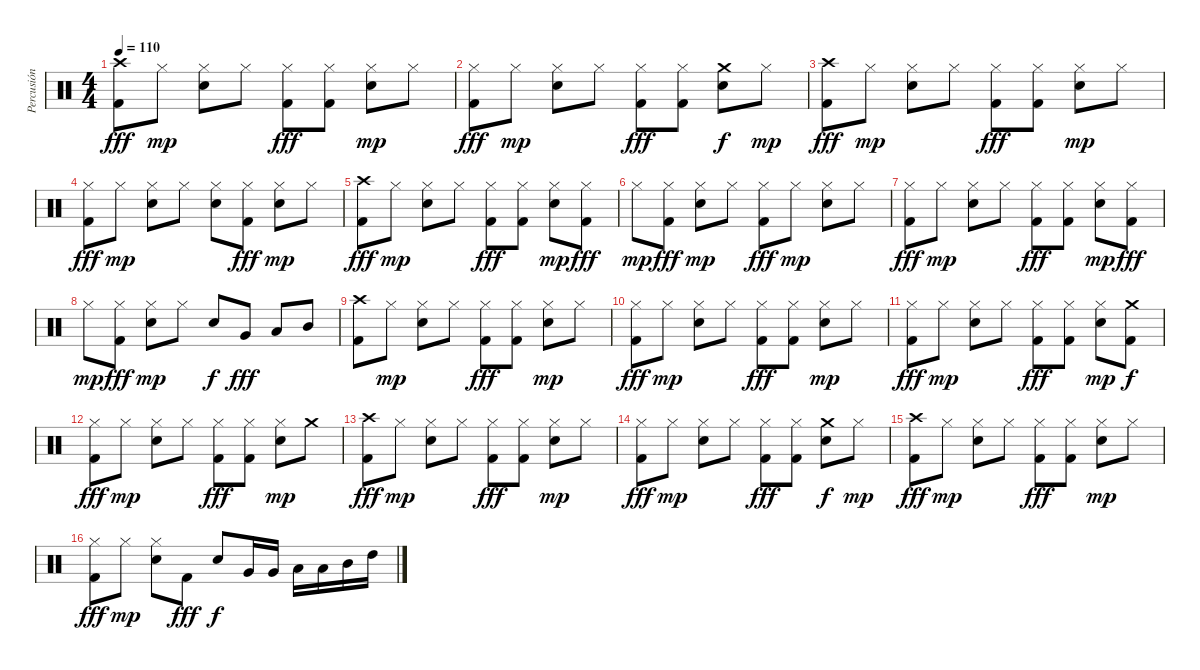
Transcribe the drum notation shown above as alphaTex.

\track ("Percusión" "Percusión") {instrument percussion}
\staff {score}
\articulation defaults
\ts (4 4)
\tempo 110
\clef neutral
\ks c
("Crash high (hit)" "Kick (hit) 2").8{dy fff} "Hi-Hat (closed)".8{dy mp} ("Hi-Hat (closed)" "Snare (hit) 2").8 "Hi-Hat (closed)".8 ("Hi-Hat (closed)" "Kick (hit) 2").8{dy fff} ("Hi-Hat (closed)" "Kick (hit) 2").8 ("Hi-Hat (closed)" "Snare (hit) 2").8{dy mp} "Hi-Hat (closed)".8 |
("Hi-Hat (closed)" "Kick (hit) 2").8{dy fff} "Hi-Hat (closed)".8{dy mp} ("Hi-Hat (closed)" "Snare (hit) 2").8 "Hi-Hat (closed)".8 ("Hi-Hat (closed)" "Kick (hit) 2").8{dy fff} ("Hi-Hat (closed)" "Kick (hit) 2").8 ("Crash medium (hit)" "Snare (hit) 2").8{dy f} "Hi-Hat (closed)".8{dy mp} |
("Crash high (hit)" "Kick (hit) 2").8{dy fff} "Hi-Hat (closed)".8{dy mp} ("Hi-Hat (closed)" "Snare (hit) 2").8 "Hi-Hat (closed)".8 ("Hi-Hat (closed)" "Kick (hit) 2").8{dy fff} ("Hi-Hat (closed)" "Kick (hit) 2").8 ("Hi-Hat (closed)" "Snare (hit) 2").8{dy mp} "Hi-Hat (closed)".8 |
("Hi-Hat (closed)" "Kick (hit) 2").8{dy fff} "Hi-Hat (closed)".8{dy mp} ("Hi-Hat (closed)" "Snare (hit) 2").8 "Hi-Hat (closed)".8 ("Hi-Hat (closed)" "Snare (hit) 2").8 ("Hi-Hat (closed)" "Kick (hit) 2").8{dy fff} ("Hi-Hat (closed)" "Snare (hit) 2").8{dy mp} "Hi-Hat (closed)".8 |
("Crash high (hit)" "Kick (hit) 2").8{dy fff} "Hi-Hat (closed)".8{dy mp} ("Hi-Hat (closed)" "Snare (hit) 2").8 "Hi-Hat (closed)".8 ("Hi-Hat (closed)" "Kick (hit) 2").8{dy fff} ("Hi-Hat (closed)" "Kick (hit) 2").8 ("Hi-Hat (closed)" "Snare (hit) 2").8{dy mp} ("Hi-Hat (closed)" "Kick (hit) 2").8{dy fff} |
"Hi-Hat (closed)".8{dy mp} ("Hi-Hat (closed)" "Kick (hit) 2").8{dy fff} ("Hi-Hat (closed)" "Snare (hit) 2").8{dy mp} "Hi-Hat (closed)".8 ("Hi-Hat (closed)" "Kick (hit) 2").8{dy fff} "Hi-Hat (closed)".8{dy mp} ("Hi-Hat (closed)" "Snare (hit) 2").8 "Hi-Hat (closed)".8 |
("Hi-Hat (closed)" "Kick (hit) 2").8{dy fff} "Hi-Hat (closed)".8{dy mp} ("Hi-Hat (closed)" "Snare (hit) 2").8 "Hi-Hat (closed)".8 ("Hi-Hat (closed)" "Kick (hit) 2").8{dy fff} ("Hi-Hat (closed)" "Kick (hit) 2").8 ("Hi-Hat (closed)" "Snare (hit) 2").8{dy mp} ("Hi-Hat (closed)" "Kick (hit) 2").8{dy fff} |
"Hi-Hat (closed)".8{dy mp} ("Hi-Hat (closed)" "Kick (hit) 2").8{dy fff} ("Hi-Hat (closed)" "Snare (hit) 2").8{dy mp} "Hi-Hat (closed)".8 "Snare (hit) 2".8{dy f} "Very Low Tom (hit)".8{dy fff} "Low Tom (hit)".8 "Mid Tom (hit)".8 |
("Crash high (hit)" "Kick (hit) 2").8 "Hi-Hat (closed)".8{dy mp} ("Hi-Hat (closed)" "Snare (hit) 2").8 "Hi-Hat (closed)".8 ("Hi-Hat (closed)" "Kick (hit) 2").8{dy fff} ("Hi-Hat (closed)" "Kick (hit) 2").8 ("Hi-Hat (closed)" "Snare (hit) 2").8{dy mp} "Hi-Hat (closed)".8 |
("Hi-Hat (closed)" "Kick (hit) 2").8{dy fff} "Hi-Hat (closed)".8{dy mp} ("Hi-Hat (closed)" "Snare (hit) 2").8 "Hi-Hat (closed)".8 ("Hi-Hat (closed)" "Kick (hit) 2").8{dy fff} ("Hi-Hat (closed)" "Kick (hit) 2").8 ("Hi-Hat (closed)" "Snare (hit) 2").8{dy mp} "Hi-Hat (closed)".8 |
("Hi-Hat (closed)" "Kick (hit) 2").8{dy fff} "Hi-Hat (closed)".8{dy mp} ("Hi-Hat (closed)" "Snare (hit) 2").8 "Hi-Hat (closed)".8 ("Hi-Hat (closed)" "Kick (hit) 2").8{dy fff} ("Hi-Hat (closed)" "Kick (hit) 2").8 ("Hi-Hat (closed)" "Snare (hit) 2").8{dy mp} ("Crash medium (hit)" "Kick (hit) 2").8{dy f} |
("Hi-Hat (closed)" "Kick (hit) 2").8{dy fff} "Hi-Hat (closed)".8{dy mp} ("Hi-Hat (closed)" "Snare (hit) 2").8 "Hi-Hat (closed)".8 ("Hi-Hat (closed)" "Kick (hit) 2").8{dy fff} ("Hi-Hat (closed)" "Kick (hit) 2").8 ("Hi-Hat (closed)" "Snare (hit) 2").8{dy mp} "Crash medium (hit)".8 |
("Crash high (hit)" "Kick (hit) 2").8{dy fff} "Hi-Hat (closed)".8{dy mp} ("Hi-Hat (closed)" "Snare (hit) 2").8 "Hi-Hat (closed)".8 ("Hi-Hat (closed)" "Kick (hit) 2").8{dy fff} ("Hi-Hat (closed)" "Kick (hit) 2").8 ("Hi-Hat (closed)" "Snare (hit) 2").8{dy mp} "Hi-Hat (closed)".8 |
("Hi-Hat (closed)" "Kick (hit) 2").8{dy fff} "Hi-Hat (closed)".8{dy mp} ("Hi-Hat (closed)" "Snare (hit) 2").8 "Hi-Hat (closed)".8 ("Hi-Hat (closed)" "Kick (hit) 2").8{dy fff} ("Hi-Hat (closed)" "Kick (hit) 2").8 ("Crash medium (hit)" "Snare (hit) 2").8{dy f} "Hi-Hat (closed)".8{dy mp} |
("Crash high (hit)" "Kick (hit) 2").8{dy fff} "Hi-Hat (closed)".8{dy mp} ("Hi-Hat (closed)" "Snare (hit) 2").8 "Hi-Hat (closed)".8 ("Hi-Hat (closed)" "Kick (hit) 2").8{dy fff} ("Hi-Hat (closed)" "Kick (hit) 2").8 ("Hi-Hat (closed)" "Snare (hit) 2").8{dy mp} "Hi-Hat (closed)".8 |
("Hi-Hat (closed)" "Kick (hit) 2").8{dy fff} "Hi-Hat (closed)".8{dy mp} ("Hi-Hat (closed)" "Snare (hit) 2").8 "Kick (hit) 2".8{dy fff} "Snare (hit) 2".8{dy f} "Very Low Tom (hit)".16 "Very Low Tom (hit)".16 "Low Tom (hit)".16 "Low Tom (hit)".16 "Mid Tom (hit)".16 "High Tom (hit)".16
